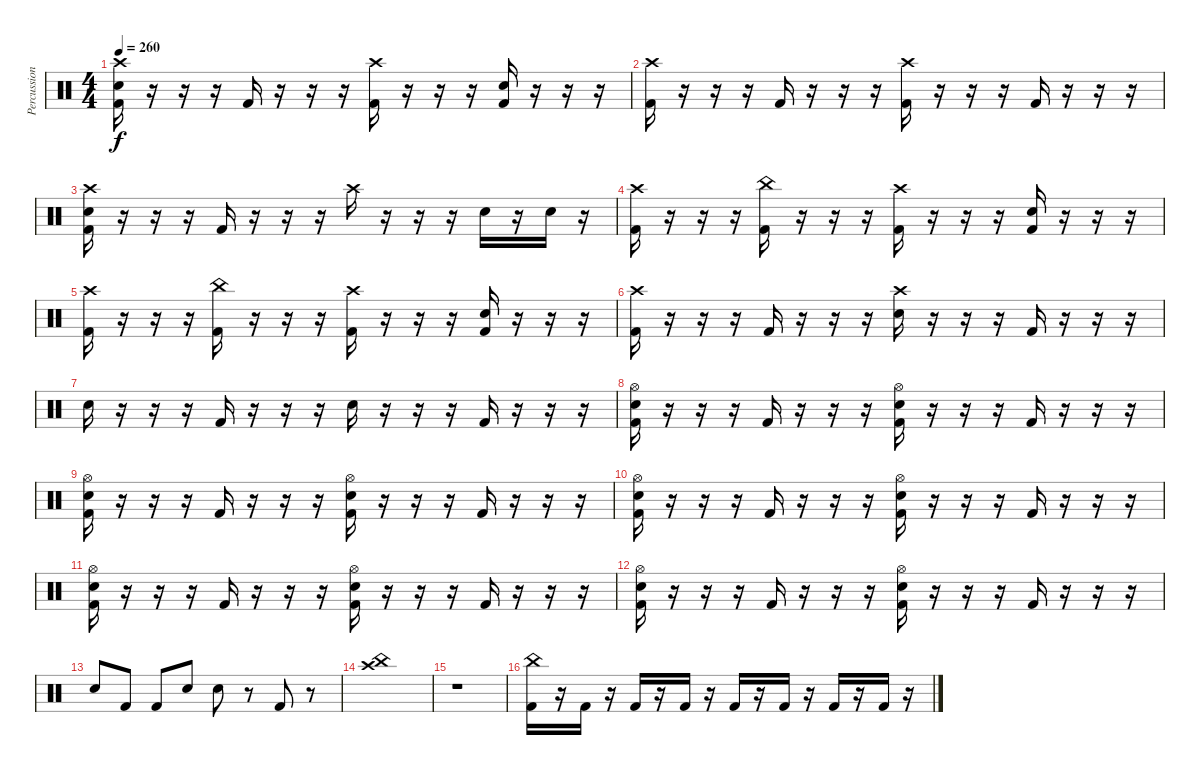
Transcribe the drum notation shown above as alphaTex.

\track ("Percussion" "Percussion") {instrument percussion}
\staff {score}
\articulation defaults
\ts (4 4)
\tempo 260
\clef neutral
\ks c
("Kick (hit) 2" "Snare (hit) 2" "Crash high (hit)").16{dy f} r.16 r.16 r.16 "Kick (hit) 2".16 r.16 r.16 r.16 ("Kick (hit) 2" "Crash high (hit)").16 r.16 r.16 r.16 ("Kick (hit) 2" "Snare (hit) 2").16 r.16 r.16 r.16 |
("Kick (hit) 2" "Crash high (hit)").16 r.16 r.16 r.16 "Kick (hit) 2".16 r.16 r.16 r.16 ("Kick (hit) 2" "Crash high (hit)").16 r.16 r.16 r.16 "Kick (hit) 2".16 r.16 r.16 r.16 |
("Kick (hit) 2" "Snare (hit) 2" "Crash high (hit)").16 r.16 r.16 r.16 "Kick (hit) 2".16 r.16 r.16 r.16 "Crash high (hit)".16 r.16 r.16 r.16 "Snare (hit) 2".16 r.16 "Snare (hit) 2".16 r.16 |
("Kick (hit) 2" "Crash high (hit)").16 r.16 r.16 r.16 ("Kick (hit) 2" "China (hit)").16 r.16 r.16 r.16 ("Kick (hit) 2" "Crash high (hit)").16 r.16 r.16 r.16 ("Kick (hit) 2" "Snare (hit) 2").16 r.16 r.16 r.16 |
("Kick (hit) 2" "Crash high (hit)").16 r.16 r.16 r.16 ("Kick (hit) 2" "China (hit)").16 r.16 r.16 r.16 ("Kick (hit) 2" "Crash high (hit)").16 r.16 r.16 r.16 ("Kick (hit) 2" "Snare (hit) 2").16 r.16 r.16 r.16 |
("Kick (hit) 2" "Crash high (hit)").16 r.16 r.16 r.16 "Kick (hit) 2".16 r.16 r.16 r.16 ("Snare (hit) 2" "Crash high (hit)").16 r.16 r.16 r.16 "Kick (hit) 2".16 r.16 r.16 r.16 |
"Snare (hit) 2".16 r.16 r.16 r.16 "Kick (hit) 2".16 r.16 r.16 r.16 "Snare (hit) 2".16 r.16 r.16 r.16 "Kick (hit) 2".16 r.16 r.16 r.16 |
("Kick (hit) 2" "Snare (hit) 2" "Hi-Hat (open)").16 r.16 r.16 r.16 "Kick (hit) 2".16 r.16 r.16 r.16 ("Kick (hit) 2" "Snare (hit) 2" "Hi-Hat (open)").16 r.16 r.16 r.16 "Kick (hit) 2".16 r.16 r.16 r.16 |
("Kick (hit) 2" "Snare (hit) 2" "Hi-Hat (open)").16 r.16 r.16 r.16 "Kick (hit) 2".16 r.16 r.16 r.16 ("Kick (hit) 2" "Snare (hit) 2" "Hi-Hat (open)").16 r.16 r.16 r.16 "Kick (hit) 2".16 r.16 r.16 r.16 |
("Kick (hit) 2" "Snare (hit) 2" "Hi-Hat (open)").16 r.16 r.16 r.16 "Kick (hit) 2".16 r.16 r.16 r.16 ("Kick (hit) 2" "Snare (hit) 2" "Hi-Hat (open)").16 r.16 r.16 r.16 "Kick (hit) 2".16 r.16 r.16 r.16 |
("Kick (hit) 2" "Snare (hit) 2" "Hi-Hat (open)").16 r.16 r.16 r.16 "Kick (hit) 2".16 r.16 r.16 r.16 ("Kick (hit) 2" "Snare (hit) 2" "Hi-Hat (open)").16 r.16 r.16 r.16 "Kick (hit) 2".16 r.16 r.16 r.16 |
("Kick (hit) 2" "Snare (hit) 2" "Hi-Hat (open)").16 r.16 r.16 r.16 "Kick (hit) 2".16 r.16 r.16 r.16 ("Kick (hit) 2" "Snare (hit) 2" "Hi-Hat (open)").16 r.16 r.16 r.16 "Kick (hit) 2".16 r.16 r.16 r.16 |
"Snare (hit) 2".8 "Kick (hit) 2".8 "Kick (hit) 2".8 "Snare (hit) 2".8 "Snare (hit) 2".8 r.8 "Kick (hit) 2".8 r.8 |
("China (hit)" "Crash high (hit)").1 |
r.1 |
("Kick (hit) 2" "China (hit)").16 r.16 "Kick (hit) 2".16 r.16 "Kick (hit) 2".16 r.16 "Kick (hit) 2".16 r.16 "Kick (hit) 2".16 r.16 "Kick (hit) 2".16 r.16 "Kick (hit) 2".16 r.16 "Kick (hit) 2".16 r.16
